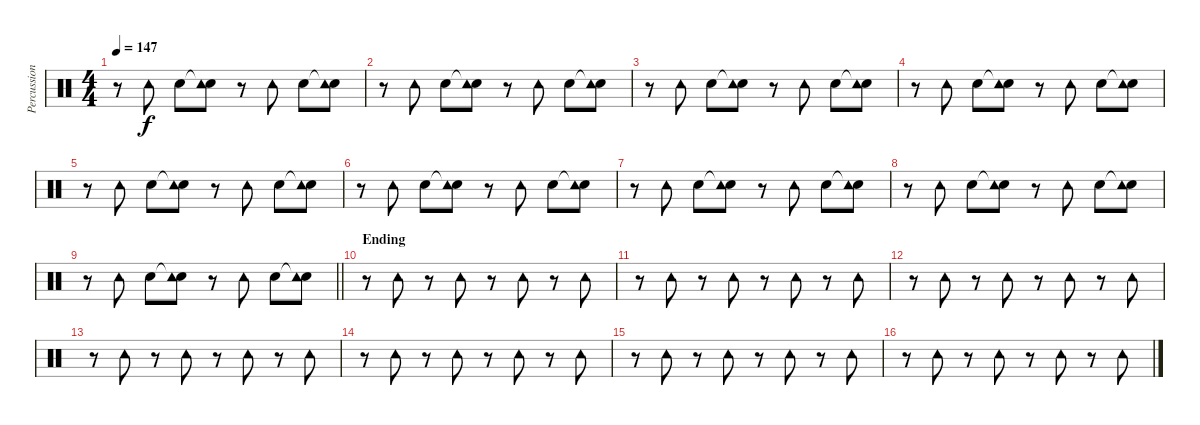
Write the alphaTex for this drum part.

\track ("Percussion" "Percussion") {instrument percussion}
\staff {score}
\articulation defaults
\ts (4 4)
\tempo 147
\clef neutral
\ks aminor
r.8{dy f} "Tambourine (hit)".8 "Hand Clap (hit)".8 ("Snare (hit)"{t} "Tambourine (hit)").8 r.8 "Tambourine (hit)".8 "Hand Clap (hit)".8 ("Snare (hit)"{t} "Tambourine (hit)").8 |
r.8 "Tambourine (hit)".8 "Hand Clap (hit)".8 ("Snare (hit)"{t} "Tambourine (hit)").8 r.8 "Tambourine (hit)".8 "Hand Clap (hit)".8 ("Snare (hit)"{t} "Tambourine (hit)").8 |
r.8 "Tambourine (hit)".8 "Hand Clap (hit)".8 ("Snare (hit)"{t} "Tambourine (hit)").8 r.8 "Tambourine (hit)".8 "Hand Clap (hit)".8 ("Snare (hit)"{t} "Tambourine (hit)").8 |
r.8 "Tambourine (hit)".8 "Hand Clap (hit)".8 ("Snare (hit)"{t} "Tambourine (hit)").8 r.8 "Tambourine (hit)".8 "Hand Clap (hit)".8 ("Snare (hit)"{t} "Tambourine (hit)").8 |
r.8 "Tambourine (hit)".8 "Hand Clap (hit)".8 ("Snare (hit)"{t} "Tambourine (hit)").8 r.8 "Tambourine (hit)".8 "Hand Clap (hit)".8 ("Snare (hit)"{t} "Tambourine (hit)").8 |
r.8 "Tambourine (hit)".8 "Hand Clap (hit)".8 ("Snare (hit)"{t} "Tambourine (hit)").8 r.8 "Tambourine (hit)".8 "Hand Clap (hit)".8 ("Snare (hit)"{t} "Tambourine (hit)").8 |
r.8 "Tambourine (hit)".8 "Hand Clap (hit)".8 ("Snare (hit)"{t} "Tambourine (hit)").8 r.8 "Tambourine (hit)".8 "Hand Clap (hit)".8 ("Snare (hit)"{t} "Tambourine (hit)").8 |
r.8 "Tambourine (hit)".8 "Hand Clap (hit)".8 ("Snare (hit)"{t} "Tambourine (hit)").8 r.8 "Tambourine (hit)".8 "Hand Clap (hit)".8 ("Snare (hit)"{t} "Tambourine (hit)").8 |
\barLineRight lightlight
r.8 "Tambourine (hit)".8 "Hand Clap (hit)".8 ("Snare (hit)"{t} "Tambourine (hit)").8 r.8 "Tambourine (hit)".8 "Hand Clap (hit)".8 ("Snare (hit)"{t} "Tambourine (hit)").8 |
\section ("" "Ending")
r.8 "Tambourine (hit)".8 r.8 "Tambourine (hit)".8 r.8 "Tambourine (hit)".8 r.8 "Tambourine (hit)".8 |
r.8 "Tambourine (hit)".8 r.8 "Tambourine (hit)".8 r.8 "Tambourine (hit)".8 r.8 "Tambourine (hit)".8 |
r.8 "Tambourine (hit)".8 r.8 "Tambourine (hit)".8 r.8 "Tambourine (hit)".8 r.8 "Tambourine (hit)".8 |
r.8 "Tambourine (hit)".8 r.8 "Tambourine (hit)".8 r.8 "Tambourine (hit)".8 r.8 "Tambourine (hit)".8 |
r.8 "Tambourine (hit)".8 r.8 "Tambourine (hit)".8 r.8 "Tambourine (hit)".8 r.8 "Tambourine (hit)".8 |
r.8 "Tambourine (hit)".8 r.8 "Tambourine (hit)".8 r.8 "Tambourine (hit)".8 r.8 "Tambourine (hit)".8 |
r.8 "Tambourine (hit)".8 r.8 "Tambourine (hit)".8 r.8 "Tambourine (hit)".8 r.8 "Tambourine (hit)".8
